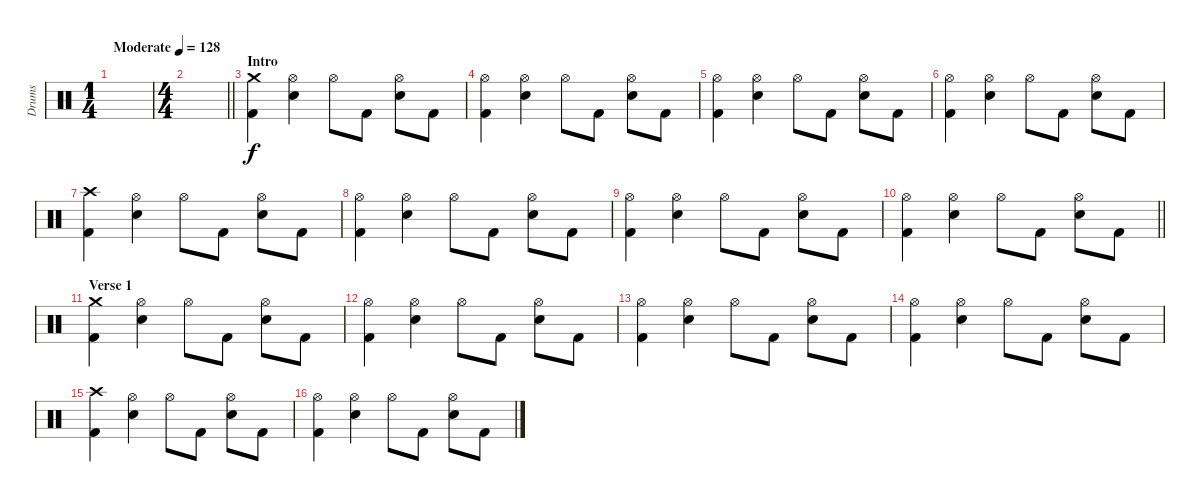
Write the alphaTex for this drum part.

\track ("Drums" "Drums") {instrument percussion}
\staff {score}
\articulation defaults
\ts (1 4)
\tempo (128 "Moderate")
\clef neutral
\ks c
|
\ts (4 4)
\barLineRight lightlight
|
\section ("" "Intro")
("Crash medium (hit)" "Kick (hit) 2").4 ("Hi-Hat (open)" "Electric Snare (hit)").4 "Hi-Hat (open)".8 "Kick (hit) 2".8 ("Hi-Hat (open)" "Electric Snare (hit)").8 "Kick (hit) 2".8 |
("Hi-Hat (open)" "Kick (hit) 2").4 ("Hi-Hat (open)" "Electric Snare (hit)").4 "Hi-Hat (open)".8 "Kick (hit) 2".8 ("Hi-Hat (open)" "Electric Snare (hit)").8 "Kick (hit) 2".8 |
("Hi-Hat (open)" "Kick (hit) 2").4 ("Hi-Hat (open)" "Electric Snare (hit)").4 "Hi-Hat (open)".8 "Kick (hit) 2".8 ("Hi-Hat (open)" "Electric Snare (hit)").8 "Kick (hit) 2".8 |
("Hi-Hat (open)" "Kick (hit) 2").4 ("Hi-Hat (open)" "Electric Snare (hit)").4 "Hi-Hat (open)".8 "Kick (hit) 2".8 ("Hi-Hat (open)" "Electric Snare (hit)").8 "Kick (hit) 2".8 |
("Crash high (hit)" "Kick (hit) 2").4 ("Hi-Hat (open)" "Electric Snare (hit)").4 "Hi-Hat (open)".8 "Kick (hit) 2".8 ("Hi-Hat (open)" "Electric Snare (hit)").8 "Kick (hit) 2".8 |
("Hi-Hat (open)" "Kick (hit) 2").4 ("Hi-Hat (open)" "Electric Snare (hit)").4 "Hi-Hat (open)".8 "Kick (hit) 2".8 ("Hi-Hat (open)" "Electric Snare (hit)").8 "Kick (hit) 2".8 |
("Hi-Hat (open)" "Kick (hit) 2").4 ("Hi-Hat (open)" "Electric Snare (hit)").4 "Hi-Hat (open)".8 "Kick (hit) 2".8 ("Hi-Hat (open)" "Electric Snare (hit)").8 "Kick (hit) 2".8 |
\barLineRight lightlight
("Hi-Hat (open)" "Kick (hit) 2").4 ("Hi-Hat (open)" "Electric Snare (hit)").4 "Hi-Hat (open)".8 "Kick (hit) 2".8 ("Hi-Hat (open)" "Electric Snare (hit)").8 "Kick (hit) 2".8 |
\section ("" "Verse 1")
("Crash medium (hit)" "Kick (hit) 2").4 ("Hi-Hat (open)" "Electric Snare (hit)").4 "Hi-Hat (open)".8 "Kick (hit) 2".8 ("Hi-Hat (open)" "Electric Snare (hit)").8 "Kick (hit) 2".8 |
("Hi-Hat (open)" "Kick (hit) 2").4 ("Hi-Hat (open)" "Electric Snare (hit)").4 "Hi-Hat (open)".8 "Kick (hit) 2".8 ("Hi-Hat (open)" "Electric Snare (hit)").8 "Kick (hit) 2".8 |
("Hi-Hat (open)" "Kick (hit) 2").4 ("Hi-Hat (open)" "Electric Snare (hit)").4 "Hi-Hat (open)".8 "Kick (hit) 2".8 ("Hi-Hat (open)" "Electric Snare (hit)").8 "Kick (hit) 2".8 |
("Hi-Hat (open)" "Kick (hit) 2").4 ("Hi-Hat (open)" "Electric Snare (hit)").4 "Hi-Hat (open)".8 "Kick (hit) 2".8 ("Hi-Hat (open)" "Electric Snare (hit)").8 "Kick (hit) 2".8 |
("Crash high (hit)" "Kick (hit) 2").4 ("Hi-Hat (open)" "Electric Snare (hit)").4 "Hi-Hat (open)".8 "Kick (hit) 2".8 ("Hi-Hat (open)" "Electric Snare (hit)").8 "Kick (hit) 2".8 |
("Hi-Hat (open)" "Kick (hit) 2").4 ("Hi-Hat (open)" "Electric Snare (hit)").4 "Hi-Hat (open)".8 "Kick (hit) 2".8 ("Hi-Hat (open)" "Electric Snare (hit)").8 "Kick (hit) 2".8
